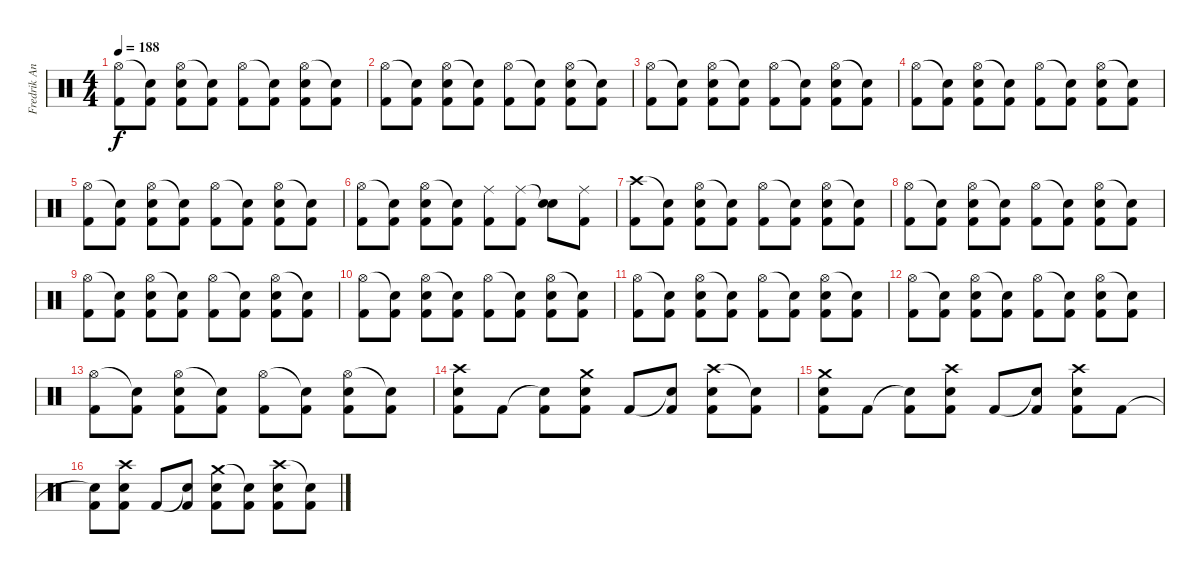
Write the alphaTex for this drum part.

\track ("Fredrik Andersson" "Fredrik An") {instrument percussion}
\staff {score}
\articulation defaults
\ts (4 4)
\tempo 188
\clef neutral
\ks c
("Hi-Hat (open)" "Kick (hit) 2").8{dy f} ("Snare (hit)"{t} "Kick (hit) 2").8 ("Hi-Hat (open)" "Snare (hit) 2" "Kick (hit) 2").8 ("Snare (hit)"{t} "Kick (hit) 2").8 ("Hi-Hat (open)" "Kick (hit) 2").8 ("Snare (hit)"{t} "Kick (hit) 2").8 ("Hi-Hat (open)" "Snare (hit) 2" "Kick (hit) 2").8 ("Snare (hit)"{t} "Kick (hit) 2").8 |
("Hi-Hat (open)" "Kick (hit) 2").8 ("Snare (hit)"{t} "Kick (hit) 2").8 ("Hi-Hat (open)" "Snare (hit) 2" "Kick (hit) 2").8 ("Snare (hit)"{t} "Kick (hit) 2").8 ("Hi-Hat (open)" "Kick (hit) 2").8 ("Snare (hit)"{t} "Kick (hit) 2").8 ("Hi-Hat (open)" "Snare (hit) 2" "Kick (hit) 2").8 ("Snare (hit)"{t} "Kick (hit) 2").8 |
("Hi-Hat (open)" "Kick (hit) 2").8 ("Snare (hit)"{t} "Kick (hit) 2").8 ("Hi-Hat (open)" "Snare (hit) 2" "Kick (hit) 2").8 ("Snare (hit)"{t} "Kick (hit) 2").8 ("Hi-Hat (open)" "Kick (hit) 2").8 ("Snare (hit)"{t} "Kick (hit) 2").8 ("Hi-Hat (open)" "Snare (hit) 2" "Kick (hit) 2").8 ("Snare (hit)"{t} "Kick (hit) 2").8 |
("Hi-Hat (open)" "Kick (hit) 2").8 ("Snare (hit)"{t} "Kick (hit) 2").8 ("Hi-Hat (open)" "Snare (hit) 2" "Kick (hit) 2").8 ("Snare (hit)"{t} "Kick (hit) 2").8 ("Hi-Hat (open)" "Kick (hit) 2").8 ("Snare (hit)"{t} "Kick (hit) 2").8 ("Hi-Hat (open)" "Snare (hit) 2" "Kick (hit) 2").8 ("Snare (hit)"{t} "Kick (hit) 2").8 |
("Hi-Hat (open)" "Kick (hit) 2").8 ("Snare (hit)"{t} "Kick (hit) 2").8 ("Hi-Hat (open)" "Snare (hit) 2" "Kick (hit) 2").8 ("Snare (hit)"{t} "Kick (hit) 2").8 ("Hi-Hat (open)" "Kick (hit) 2").8 ("Snare (hit)"{t} "Kick (hit) 2").8 ("Hi-Hat (open)" "Snare (hit) 2" "Kick (hit) 2").8 ("Snare (hit)"{t} "Kick (hit) 2").8 |
("Hi-Hat (open)" "Kick (hit) 2").8 ("Snare (hit)"{t} "Kick (hit) 2").8 ("Hi-Hat (open)" "Snare (hit) 2" "Kick (hit) 2").8 ("Snare (hit)"{t} "Kick (hit) 2").8 ("Ride (middle)" "Kick (hit) 2").8 ("Ride (middle)" "Kick (hit) 2").8 ("Snare (hit)"{t} "Snare (hit) 2").8 ("Ride (middle)" "Kick (hit) 2").8 |
("Crash high (hit)" "Kick (hit) 2").8 ("Snare (hit)"{t} "Kick (hit) 2").8 ("Hi-Hat (open)" "Snare (hit) 2" "Kick (hit) 2").8 ("Snare (hit)"{t} "Kick (hit) 2").8 ("Hi-Hat (open)" "Kick (hit) 2").8 ("Snare (hit)"{t} "Kick (hit) 2").8 ("Hi-Hat (open)" "Snare (hit) 2" "Kick (hit) 2").8 ("Snare (hit)"{t} "Kick (hit) 2").8 |
("Hi-Hat (open)" "Kick (hit) 2").8 ("Snare (hit)"{t} "Kick (hit) 2").8 ("Hi-Hat (open)" "Snare (hit) 2" "Kick (hit) 2").8 ("Snare (hit)"{t} "Kick (hit) 2").8 ("Hi-Hat (open)" "Kick (hit) 2").8 ("Snare (hit)"{t} "Kick (hit) 2").8 ("Hi-Hat (open)" "Snare (hit) 2" "Kick (hit) 2").8 ("Snare (hit)"{t} "Kick (hit) 2").8 |
("Hi-Hat (open)" "Kick (hit) 2").8 ("Snare (hit)"{t} "Kick (hit) 2").8 ("Hi-Hat (open)" "Snare (hit) 2" "Kick (hit) 2").8 ("Snare (hit)"{t} "Kick (hit) 2").8 ("Hi-Hat (open)" "Kick (hit) 2").8 ("Snare (hit)"{t} "Kick (hit) 2").8 ("Hi-Hat (open)" "Snare (hit) 2" "Kick (hit) 2").8 ("Snare (hit)"{t} "Kick (hit) 2").8 |
("Hi-Hat (open)" "Kick (hit) 2").8 ("Snare (hit)"{t} "Kick (hit) 2").8 ("Hi-Hat (open)" "Snare (hit) 2" "Kick (hit) 2").8 ("Snare (hit)"{t} "Kick (hit) 2").8 ("Hi-Hat (open)" "Kick (hit) 2").8 ("Snare (hit)"{t} "Kick (hit) 2").8 ("Hi-Hat (open)" "Snare (hit) 2" "Kick (hit) 2").8 ("Snare (hit)"{t} "Kick (hit) 2").8 |
("Hi-Hat (open)" "Kick (hit) 2").8 ("Snare (hit)"{t} "Kick (hit) 2").8 ("Hi-Hat (open)" "Snare (hit) 2" "Kick (hit) 2").8 ("Snare (hit)"{t} "Kick (hit) 2").8 ("Hi-Hat (open)" "Kick (hit) 2").8 ("Snare (hit)"{t} "Kick (hit) 2").8 ("Hi-Hat (open)" "Snare (hit) 2" "Kick (hit) 2").8 ("Snare (hit)"{t} "Kick (hit) 2").8 |
("Hi-Hat (open)" "Kick (hit) 2").8 ("Snare (hit)"{t} "Kick (hit) 2").8 ("Hi-Hat (open)" "Snare (hit) 2" "Kick (hit) 2").8 ("Snare (hit)"{t} "Kick (hit) 2").8 ("Hi-Hat (open)" "Kick (hit) 2").8 ("Snare (hit)"{t} "Kick (hit) 2").8 ("Hi-Hat (open)" "Snare (hit) 2" "Kick (hit) 2").8 ("Snare (hit)"{t} "Kick (hit) 2").8 |
("Hi-Hat (open)" "Kick (hit) 2").8 ("Snare (hit)"{t} "Kick (hit) 2").8 ("Hi-Hat (open)" "Snare (hit) 2" "Kick (hit) 2").8 ("Snare (hit)"{t} "Kick (hit) 2").8 ("Hi-Hat (open)" "Kick (hit) 2").8 ("Snare (hit)"{t} "Kick (hit) 2").8 ("Hi-Hat (open)" "Snare (hit) 2" "Kick (hit) 2").8 ("Snare (hit)"{t} "Kick (hit) 2").8 |
("Crash high (hit)" "Snare (hit) 2" "Kick (hit) 2").8 "Kick (hit) 2".8 ("Snare (hit)"{t} "Kick (hit) 2").8 ("Crash medium (hit)" "Snare (hit) 2" "Kick (hit) 2").8 "Kick (hit) 2".8 ("Snare (hit)"{t} "Kick (hit) 2").8 ("Crash high (hit)" "Snare (hit) 2" "Kick (hit) 2").8 ("Snare (hit)"{t} "Kick (hit) 2").8 |
("Crash medium (hit)" "Snare (hit) 2" "Kick (hit) 2").8 "Kick (hit) 2".8 ("Snare (hit)"{t} "Kick (hit) 2").8 ("Crash high (hit)" "Snare (hit) 2" "Kick (hit) 2").8 "Kick (hit) 2".8 ("Snare (hit)"{t} "Kick (hit) 2").8 ("Crash high (hit)" "Snare (hit) 2" "Kick (hit) 2").8 "Kick (hit) 2".8 |
("Snare (hit)"{t} "Kick (hit) 2").8 ("Crash high (hit)" "Snare (hit) 2" "Kick (hit) 2").8 "Kick (hit) 2".8 ("Snare (hit)"{t} "Kick (hit) 2").8 ("Crash medium (hit)" "Snare (hit) 2" "Kick (hit) 2").8 ("Snare (hit)"{t} "Kick (hit) 2").8 ("Crash high (hit)" "Snare (hit) 2" "Kick (hit) 2").8 ("Snare (hit)"{t} "Kick (hit) 2").8
